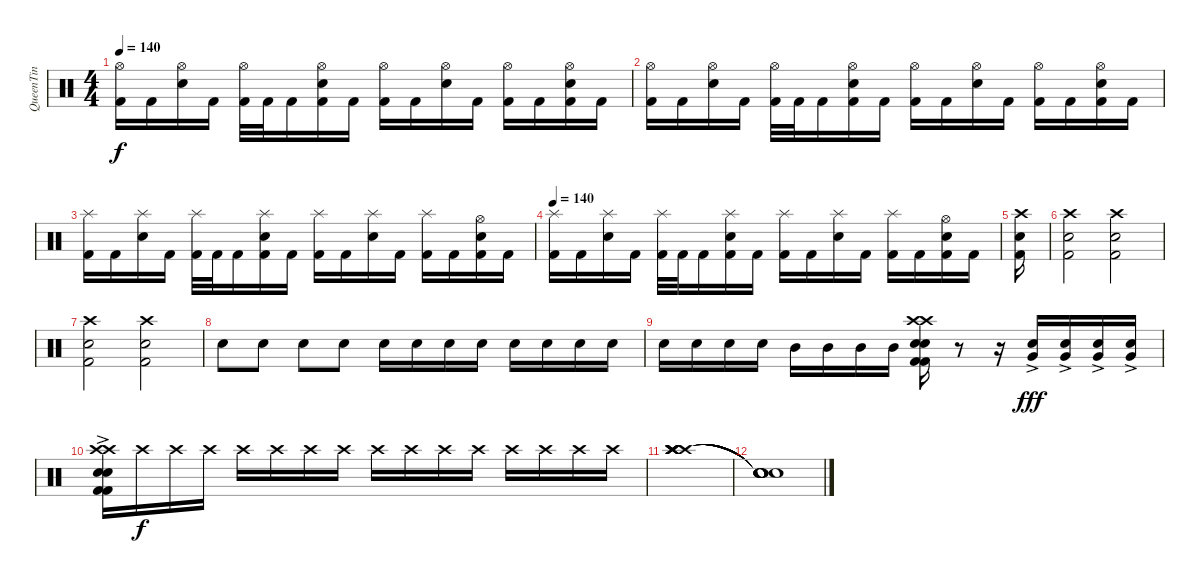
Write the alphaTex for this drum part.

\track ("QueenTin" "QueenTin") {instrument percussion}
\staff {score}
\articulation defaults
\ts (4 4)
\tempo 140
\clef neutral
\ks c
("Hi-Hat (open)" "Kick (hit) 2").16{dy f} "Kick (hit) 2".16 ("Hi-Hat (open)" "Snare (hit) 2").16 "Kick (hit) 2".16 ("Hi-Hat (open)" "Kick (hit) 2").32 "Kick (hit) 2".32 "Kick (hit) 2".16 ("Hi-Hat (open)" "Snare (hit) 2" "Kick (hit) 2").16 "Kick (hit) 2".16 ("Hi-Hat (open)" "Kick (hit) 2").16 "Kick (hit) 2".16 ("Hi-Hat (open)" "Snare (hit) 2").16 "Kick (hit) 2".16 ("Hi-Hat (open)" "Kick (hit) 2").16 "Kick (hit) 2".16 ("Hi-Hat (open)" "Snare (hit) 2" "Kick (hit) 2").16 "Kick (hit) 2".16 |
("Hi-Hat (open)" "Kick (hit) 2").16 "Kick (hit) 2".16 ("Hi-Hat (open)" "Snare (hit) 2").16 "Kick (hit) 2".16 ("Hi-Hat (open)" "Kick (hit) 2").32 "Kick (hit) 2".32 "Kick (hit) 2".16 ("Hi-Hat (open)" "Snare (hit) 2" "Kick (hit) 2").16 "Kick (hit) 2".16 ("Hi-Hat (open)" "Kick (hit) 2").16 "Kick (hit) 2".16 ("Hi-Hat (open)" "Snare (hit) 2").16 "Kick (hit) 2".16 ("Hi-Hat (open)" "Kick (hit) 2").16 "Kick (hit) 2".16 ("Hi-Hat (open)" "Snare (hit) 2" "Kick (hit) 2").16 "Kick (hit) 2".16 |
("Splash (hit)" "Kick (hit) 2").16 "Kick (hit) 2".16 ("Splash (hit)" "Snare (hit) 2").16 "Kick (hit) 2".16 ("Splash (hit)" "Kick (hit) 2").32 "Kick (hit) 2".32 "Kick (hit) 2".16 ("Splash (hit)" "Snare (hit) 2" "Kick (hit) 2").16 "Kick (hit) 2".16 ("Splash (hit)" "Kick (hit) 2").16 "Kick (hit) 2".16 ("Splash (hit)" "Snare (hit) 2").16 "Kick (hit) 2".16 ("Splash (hit)" "Kick (hit) 2").16 "Kick (hit) 2".16 ("Hi-Hat (open)" "Snare (hit) 2" "Kick (hit) 2").16 "Kick (hit) 2".16 |
\tempo 140
("Splash (hit)" "Kick (hit) 2").16 "Kick (hit) 2".16 ("Splash (hit)" "Snare (hit) 2").16 "Kick (hit) 2".16 ("Splash (hit)" "Kick (hit) 2").32 "Kick (hit) 2".32 "Kick (hit) 2".16 ("Splash (hit)" "Snare (hit) 2" "Kick (hit) 2").16 "Kick (hit) 2".16 ("Splash (hit)" "Kick (hit) 2").16 "Kick (hit) 2".16 ("Splash (hit)" "Snare (hit) 2").16 "Kick (hit) 2".16 ("Splash (hit)" "Kick (hit) 2").16 "Kick (hit) 2".16 ("Hi-Hat (open)" "Snare (hit) 2" "Kick (hit) 2").16 "Kick (hit) 2".16 |
("Crash high (hit)" "Snare (hit) 2" "Kick (hit) 2").16 |
("Crash high (hit)" "Snare (hit) 2" "Kick (hit) 2").2 ("Crash high (hit)" "Snare (hit) 2" "Kick (hit) 2").2 |
("Crash high (hit)" "Snare (hit) 2" "Kick (hit) 2").2 ("Crash high (hit)" "Snare (hit) 2" "Kick (hit) 2").2 |
"Snare (hit) 2".8 "Snare (hit) 2".8 "Snare (hit) 2".8 "Snare (hit) 2".8 "Snare (hit) 2".16 "Snare (hit) 2".16 "Snare (hit) 2".16 "Snare (hit) 2".16 "Snare (hit) 2".16 "Snare (hit) 2".16 "Snare (hit) 2".16 "Snare (hit) 2".16 |
"Snare (hit) 2".16 "Snare (hit) 2".16 "Snare (hit) 2".16 "Snare (hit) 2".16 "Mid Tom (hit)".16 "Mid Tom (hit)".16 "Mid Tom (hit)".16 "Mid Tom (hit)".16 ("Crash high (hit)" "Crash high (hit)" "Snare (hit) 2" "Snare (hit) 2" "Kick (hit) 2" "Kick (hit) 2").16 r.8 r.16 ("Snare (hit) 2" "Very Low Tom (hit)"{ac}).16{dy fff} ("Snare (hit) 2" "Very Low Tom (hit)"{ac}).16 ("Snare (hit) 2" "Very Low Tom (hit)"{ac}).16 ("Snare (hit) 2" "Very Low Tom (hit)"{ac}).16 |
("Crash high (hit)"{ac} "Crash high (hit)"{ac} "Snare (hit) 2" "Snare (hit) 2" "Kick (hit) 2" "Kick (hit) 2").16 "Crash high (hit)".16{dy f} "Crash high (hit)".16 "Crash high (hit)".16 "Crash high (hit)".16 "Crash high (hit)".16 "Crash high (hit)".16 "Crash high (hit)".16 "Crash high (hit)".16 "Crash high (hit)".16 "Crash high (hit)".16 "Crash high (hit)".16 "Crash high (hit)".16 "Crash high (hit)".16 "Crash high (hit)".16 "Crash high (hit)".16 |
("Crash high (hit)" "Crash high (hit)" "Crash high (hit)" "Crash high (hit)" "Crash high (hit)" "Crash high (hit)").1 |
("Snare (hit)"{t} "Snare (hit)"{t} "Snare (hit)"{t} "Snare (hit)"{t} "Snare (hit)"{t} "Snare (hit)"{t}).1
